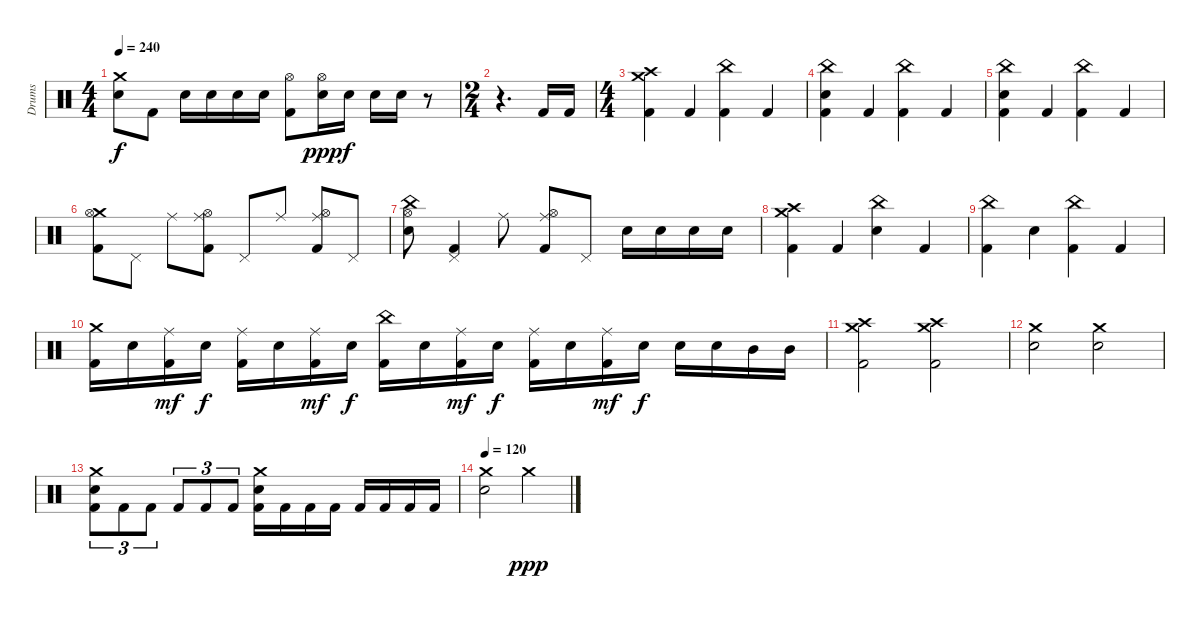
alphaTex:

\track ("Drums" "Drums") {instrument percussion}
\staff {score}
\articulation defaults
\ts (4 4)
\tempo 240
\clef neutral
\ks c
("Crash medium (hit)" "Electric Snare (hit)").8{dy f} "Kick (hit) 2".8 "Electric Snare (hit)".16 "Electric Snare (hit)".16 "Electric Snare (hit)".16 "Electric Snare (hit)".16 ("Hi-Hat (open)" "Kick (hit) 2").8 ("Hi-Hat (open)" "Electric Snare (hit)").16{dy ppp} "Electric Snare (hit)".16{dy f} "Electric Snare (hit)".16 "Electric Snare (hit)".16 r.8 |
\ts (2 4)
r.4{d} "Kick (hit) 2".16 "Kick (hit) 2".16 |
\ts (4 4)
("Crash medium (hit)" "Crash high (hit)" "Kick (hit) 2").4 "Kick (hit) 2".4 ("China (hit)" "Kick (hit) 2").4 "Kick (hit) 2".4 |
("China (hit)" "Electric Snare (hit)" "Kick (hit) 2").4 "Kick (hit) 2".4 ("China (hit)" "Kick (hit) 2").4 "Kick (hit) 2".4 |
("China (hit)" "Electric Snare (hit)" "Kick (hit) 2").4 "Kick (hit) 2".4 ("China (hit)" "Kick (hit) 2").4 "Kick (hit) 2".4 |
("Crash medium (hit)" "Hi-Hat (open)" "Kick (hit) 2").8 "Pedal Hi-Hat (hit)".8 "Ride (middle)".8 ("Ride (middle)" "Hi-Hat (open)" "Kick (hit) 2").8 "Pedal Hi-Hat (hit)".8 "Ride (middle)".8 ("Ride (middle)" "Hi-Hat (open)" "Kick (hit) 2").8 "Pedal Hi-Hat (hit)".8 |
("China (hit)" "Hi-Hat (open)" "Electric Snare (hit)").8 ("Pedal Hi-Hat (hit)" "Kick (hit) 2").4 "Ride (middle)".8 ("Ride (middle)" "Hi-Hat (open)" "Kick (hit) 2").8 "Pedal Hi-Hat (hit)".8 "Electric Snare (hit)".16 "Electric Snare (hit)".16 "Electric Snare (hit)".16 "Electric Snare (hit)".16 |
("Crash medium (hit)" "Crash high (hit)" "Kick (hit) 2").4 "Kick (hit) 2".4 ("China (hit)" "Electric Snare (hit)").4 "Kick (hit) 2".4 |
("China (hit)" "Kick (hit) 2").4 "Electric Snare (hit)".4 ("China (hit)" "Kick (hit) 2").4 "Kick (hit) 2".4 |
("Crash medium (hit)" "Kick (hit) 2").16 "Electric Snare (hit)".16 ("Ride (middle)" "Kick (hit) 2").16{dy mf} "Electric Snare (hit)".16{dy f} ("Ride (middle)" "Kick (hit) 2").16 "Electric Snare (hit)".16 ("Ride (middle)" "Kick (hit) 2").16{dy mf} "Electric Snare (hit)".16{dy f} ("China (hit)" "Kick (hit) 2").16 "Electric Snare (hit)".16 ("Ride (middle)" "Kick (hit) 2").16{dy mf} "Electric Snare (hit)".16{dy f} ("Ride (middle)" "Kick (hit) 2").16 "Electric Snare (hit)".16 ("Ride (middle)" "Kick (hit) 2").16{dy mf} "Electric Snare (hit)".16{dy f} "Electric Snare (hit)".16 "Electric Snare (hit)".16 "Mid Tom (hit)".16 "Mid Tom (hit)".16 |
("Crash medium (hit)" "Crash high (hit)" "Kick (hit) 2").2 ("Crash medium (hit)" "Crash high (hit)" "Kick (hit) 2").2 |
("Crash medium (hit)" "Electric Snare (hit)").2 ("Crash medium (hit)" "Electric Snare (hit)").2 |
("Crash medium (hit)" "Electric Snare (hit)" "Kick (hit) 2").8{tu (3 2)} "Kick (hit) 2".8{tu (3 2)} "Kick (hit) 2".8{tu (3 2)} "Kick (hit) 2".8{tu (3 2)} "Kick (hit) 2".8{tu (3 2)} "Kick (hit) 2".8{tu (3 2)} ("Crash medium (hit)" "Electric Snare (hit)" "Kick (hit) 2").16 "Kick (hit) 2".16 "Kick (hit) 2".16 "Kick (hit) 2".16 "Kick (hit) 2".16 "Kick (hit) 2".16 "Kick (hit) 2".16 "Kick (hit) 2".16 |
\tempo 120
("Crash medium (hit)" "Electric Snare (hit)").2 "Crash medium (hit)".2{dy ppp}
